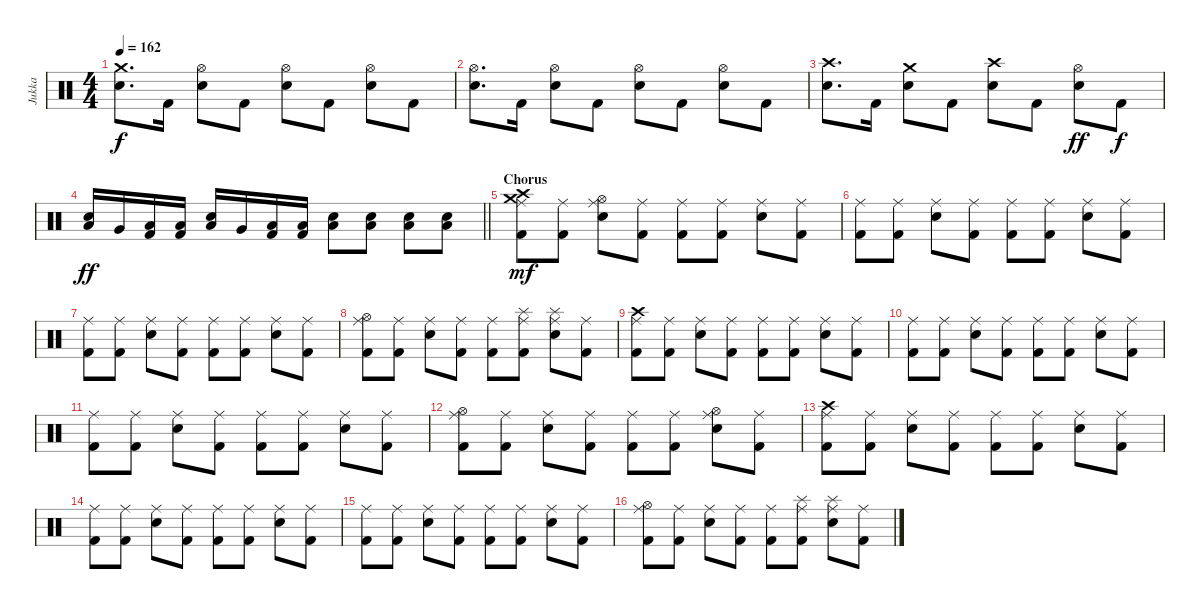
\track ("Jukka" "Jukka") {instrument percussion}
\staff {score}
\articulation defaults
\ts (4 4)
\tempo 162
\clef neutral
\ks c
("Crash medium (hit)" "Electric Snare (hit)").8{d dy f} "Kick (hit) 2".16 ("Hi-Hat (open)" "Electric Snare (hit)").8 "Kick (hit) 2".8 ("Hi-Hat (open)" "Electric Snare (hit)").8 "Kick (hit) 2".8 ("Hi-Hat (open)" "Electric Snare (hit)").8 "Kick (hit) 2".8 |
("Hi-Hat (open)" "Electric Snare (hit)").8{d} "Kick (hit) 2".16 ("Hi-Hat (open)" "Electric Snare (hit)").8 "Kick (hit) 2".8 ("Hi-Hat (open)" "Electric Snare (hit)").8 "Kick (hit) 2".8 ("Hi-Hat (open)" "Electric Snare (hit)").8 "Kick (hit) 2".8 |
("Crash high (hit)" "Electric Snare (hit)").8{d} "Kick (hit) 2".16 ("Crash medium (hit)" "Electric Snare (hit)").8 "Kick (hit) 2".8 ("Crash high (hit)" "Electric Snare (hit)").8 "Kick (hit) 2".8 ("Hi-Hat (open)" "Electric Snare (hit)").8{dy ff} "Kick (hit) 2".8{dy f} |
\barLineRight lightlight
("Low Tom (hit)" "Electric Snare (hit)").16{dy ff} "Very Low Tom (hit)".16 ("Low Floor Tom (hit)" "Kick (hit) 2").16 ("Low Floor Tom (hit)" "Kick (hit) 2").16 ("Low Tom (hit)" "Electric Snare (hit)").16 "Very Low Tom (hit)".16 ("Low Floor Tom (hit)" "Kick (hit) 2").16 ("Low Floor Tom (hit)" "Kick (hit) 2").16 ("Low Floor Tom (hit)" "Electric Snare (hit)").8 ("Low Floor Tom (hit)" "Electric Snare (hit)").8 ("Low Floor Tom (hit)" "Electric Snare (hit)").8 ("Low Floor Tom (hit)" "Electric Snare (hit)").8 |
\section ("" "Chorus")
("Crash medium (hit)" "Crash high (hit)" "Ride (middle)" "Kick (hit) 2").8{dy mf} ("Ride (middle)" "Kick (hit) 2").8 ("Hi-Hat (open)" "Ride (middle)" "Electric Snare (hit)").8 ("Ride (middle)" "Kick (hit) 2").8 ("Ride (middle)" "Kick (hit) 2").8 ("Ride (middle)" "Kick (hit) 2").8 ("Ride (middle)" "Electric Snare (hit)").8 ("Ride (middle)" "Kick (hit) 2").8 |
("Ride (middle)" "Kick (hit) 2").8 ("Ride (middle)" "Kick (hit) 2").8 ("Ride (middle)" "Electric Snare (hit)").8 ("Ride (middle)" "Kick (hit) 2").8 ("Ride (middle)" "Kick (hit) 2").8 ("Ride (middle)" "Kick (hit) 2").8 ("Ride (middle)" "Electric Snare (hit)").8 ("Ride (middle)" "Kick (hit) 2").8 |
("Ride (middle)" "Kick (hit) 2").8 ("Ride (middle)" "Kick (hit) 2").8 ("Ride (middle)" "Electric Snare (hit)").8 ("Ride (middle)" "Kick (hit) 2").8 ("Ride (middle)" "Kick (hit) 2").8 ("Ride (middle)" "Kick (hit) 2").8 ("Ride (middle)" "Electric Snare (hit)").8 ("Ride (middle)" "Kick (hit) 2").8 |
("Hi-Hat (open)" "Ride (middle)" "Kick (hit) 2").8 ("Ride (middle)" "Kick (hit) 2").8 ("Ride (middle)" "Electric Snare (hit)").8 ("Ride (middle)" "Kick (hit) 2").8 ("Ride (middle)" "Kick (hit) 2").8 ("Splash (hit)" "Ride (middle)" "Kick (hit) 2").8 ("Splash (hit)" "Ride (middle)" "Electric Snare (hit)").8 ("Ride (middle)" "Kick (hit) 2").8 |
("Crash high (hit)" "Ride (middle)" "Kick (hit) 2").8 ("Ride (middle)" "Kick (hit) 2").8 ("Ride (middle)" "Electric Snare (hit)").8 ("Ride (middle)" "Kick (hit) 2").8 ("Ride (middle)" "Kick (hit) 2").8 ("Ride (middle)" "Kick (hit) 2").8 ("Ride (middle)" "Electric Snare (hit)").8 ("Ride (middle)" "Kick (hit) 2").8 |
("Ride (middle)" "Kick (hit) 2").8 ("Ride (middle)" "Kick (hit) 2").8 ("Ride (middle)" "Electric Snare (hit)").8 ("Ride (middle)" "Kick (hit) 2").8 ("Ride (middle)" "Kick (hit) 2").8 ("Ride (middle)" "Kick (hit) 2").8 ("Ride (middle)" "Electric Snare (hit)").8 ("Ride (middle)" "Kick (hit) 2").8 |
("Ride (middle)" "Kick (hit) 2").8 ("Ride (middle)" "Kick (hit) 2").8 ("Ride (middle)" "Electric Snare (hit)").8 ("Ride (middle)" "Kick (hit) 2").8 ("Ride (middle)" "Kick (hit) 2").8 ("Ride (middle)" "Kick (hit) 2").8 ("Ride (middle)" "Electric Snare (hit)").8 ("Ride (middle)" "Kick (hit) 2").8 |
("Hi-Hat (open)" "Ride (middle)" "Kick (hit) 2").8 ("Ride (middle)" "Kick (hit) 2").8 ("Ride (middle)" "Electric Snare (hit)").8 ("Ride (middle)" "Kick (hit) 2").8 ("Ride (middle)" "Kick (hit) 2").8 ("Ride (middle)" "Kick (hit) 2").8 ("Hi-Hat (open)" "Ride (middle)" "Electric Snare (hit)").8 ("Ride (middle)" "Kick (hit) 2").8 |
("Crash high (hit)" "Ride (middle)" "Kick (hit) 2").8 ("Ride (middle)" "Kick (hit) 2").8 ("Ride (middle)" "Electric Snare (hit)").8 ("Ride (middle)" "Kick (hit) 2").8 ("Ride (middle)" "Kick (hit) 2").8 ("Ride (middle)" "Kick (hit) 2").8 ("Ride (middle)" "Electric Snare (hit)").8 ("Ride (middle)" "Kick (hit) 2").8 |
("Ride (middle)" "Kick (hit) 2").8 ("Ride (middle)" "Kick (hit) 2").8 ("Ride (middle)" "Electric Snare (hit)").8 ("Ride (middle)" "Kick (hit) 2").8 ("Ride (middle)" "Kick (hit) 2").8 ("Ride (middle)" "Kick (hit) 2").8 ("Ride (middle)" "Electric Snare (hit)").8 ("Ride (middle)" "Kick (hit) 2").8 |
("Ride (middle)" "Kick (hit) 2").8 ("Ride (middle)" "Kick (hit) 2").8 ("Ride (middle)" "Electric Snare (hit)").8 ("Ride (middle)" "Kick (hit) 2").8 ("Ride (middle)" "Kick (hit) 2").8 ("Ride (middle)" "Kick (hit) 2").8 ("Ride (middle)" "Electric Snare (hit)").8 ("Ride (middle)" "Kick (hit) 2").8 |
("Hi-Hat (open)" "Ride (middle)" "Kick (hit) 2").8 ("Ride (middle)" "Kick (hit) 2").8 ("Ride (middle)" "Electric Snare (hit)").8 ("Ride (middle)" "Kick (hit) 2").8 ("Ride (middle)" "Kick (hit) 2").8 ("Splash (hit)" "Ride (middle)" "Kick (hit) 2").8 ("Splash (hit)" "Ride (middle)" "Electric Snare (hit)").8 ("Ride (middle)" "Kick (hit) 2").8
